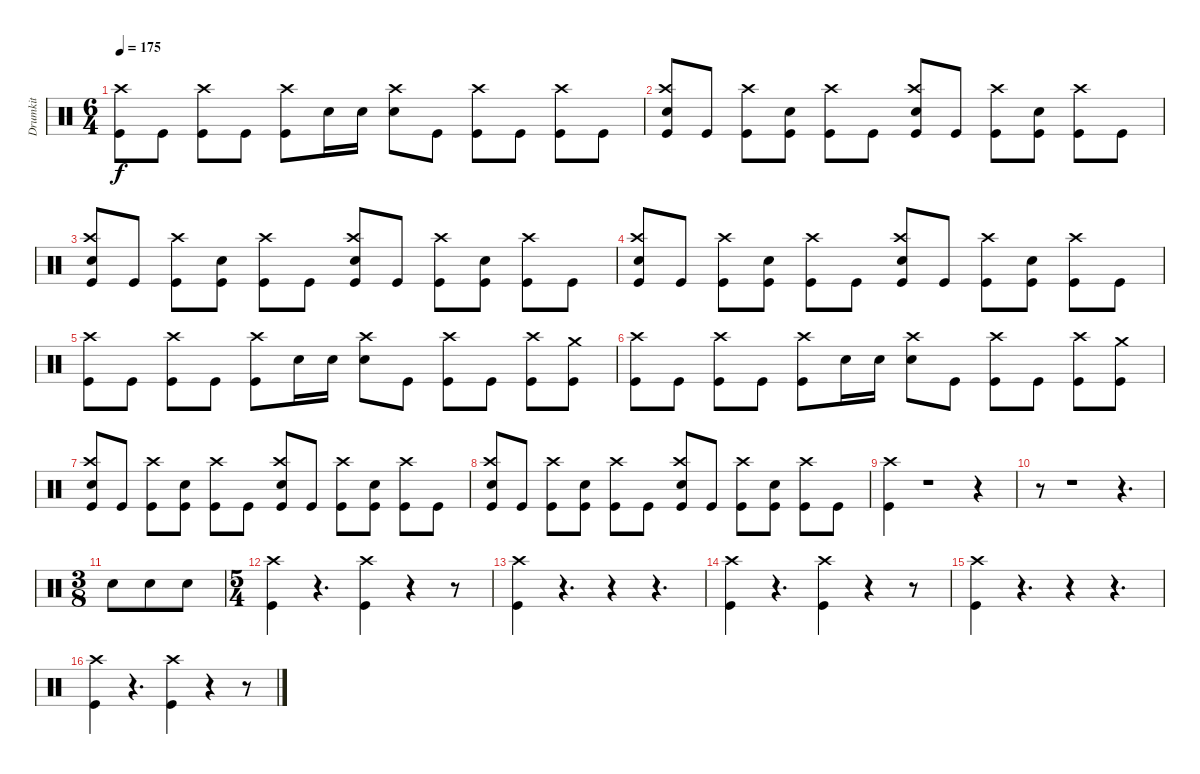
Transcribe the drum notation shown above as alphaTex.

\track ("Drumkit" "Drumkit") {instrument percussion}
\staff {score}
\articulation defaults
\ts (6 4)
\tempo 175
\clef neutral
\ks c
("Kick (hit)" "Crash high (hit)").8{dy f} "Kick (hit)".8 ("Kick (hit)" "Crash high (hit)").8 "Kick (hit)".8 ("Kick (hit)" "Crash high (hit)").8 "Snare (hit) 2".16 "Snare (hit) 2".16 ("Snare (hit) 2" "Crash high (hit)").8 "Kick (hit)".8 ("Kick (hit)" "Crash high (hit)").8 "Kick (hit)".8 ("Kick (hit)" "Crash high (hit)").8 "Kick (hit)".8 |
("Kick (hit)" "Crash high (hit)" "Snare (hit) 2").8 "Kick (hit)".8 ("Kick (hit)" "Crash high (hit)").8 ("Kick (hit)" "Snare (hit) 2").8 ("Kick (hit)" "Crash high (hit)").8 "Kick (hit)".8 ("Kick (hit)" "Crash high (hit)" "Snare (hit) 2").8 "Kick (hit)".8 ("Kick (hit)" "Crash high (hit)").8 ("Kick (hit)" "Snare (hit) 2").8 ("Kick (hit)" "Crash high (hit)").8 "Kick (hit)".8 |
("Kick (hit)" "Crash high (hit)" "Snare (hit) 2").8 "Kick (hit)".8 ("Kick (hit)" "Crash high (hit)").8 ("Kick (hit)" "Snare (hit) 2").8 ("Kick (hit)" "Crash high (hit)").8 "Kick (hit)".8 ("Kick (hit)" "Crash high (hit)" "Snare (hit) 2").8 "Kick (hit)".8 ("Kick (hit)" "Crash high (hit)").8 ("Kick (hit)" "Snare (hit) 2").8 ("Kick (hit)" "Crash high (hit)").8 "Kick (hit)".8 |
("Kick (hit)" "Crash high (hit)" "Snare (hit) 2").8 "Kick (hit)".8 ("Kick (hit)" "Crash high (hit)").8 ("Kick (hit)" "Snare (hit) 2").8 ("Kick (hit)" "Crash high (hit)").8 "Kick (hit)".8 ("Kick (hit)" "Crash high (hit)" "Snare (hit) 2").8 "Kick (hit)".8 ("Kick (hit)" "Crash high (hit)").8 ("Kick (hit)" "Snare (hit) 2").8 ("Kick (hit)" "Crash high (hit)").8 "Kick (hit)".8 |
("Kick (hit)" "Crash high (hit)").8 "Kick (hit)".8 ("Kick (hit)" "Crash high (hit)").8 "Kick (hit)".8 ("Kick (hit)" "Crash high (hit)").8 "Snare (hit) 2".16 "Snare (hit) 2".16 ("Snare (hit) 2" "Crash high (hit)").8 "Kick (hit)".8 ("Kick (hit)" "Crash high (hit)").8 "Kick (hit)".8 ("Kick (hit)" "Crash high (hit)").8 ("Kick (hit)" "Crash medium (hit)").8 |
("Kick (hit)" "Crash high (hit)").8 "Kick (hit)".8 ("Kick (hit)" "Crash high (hit)").8 "Kick (hit)".8 ("Kick (hit)" "Crash high (hit)").8 "Snare (hit) 2".16 "Snare (hit) 2".16 ("Snare (hit) 2" "Crash high (hit)").8 "Kick (hit)".8 ("Kick (hit)" "Crash high (hit)").8 "Kick (hit)".8 ("Kick (hit)" "Crash high (hit)").8 ("Kick (hit)" "Crash medium (hit)").8 |
("Kick (hit)" "Crash high (hit)" "Snare (hit) 2").8 "Kick (hit)".8 ("Kick (hit)" "Crash high (hit)").8 ("Kick (hit)" "Snare (hit) 2").8 ("Kick (hit)" "Crash high (hit)").8 "Kick (hit)".8 ("Kick (hit)" "Crash high (hit)" "Snare (hit) 2").8 "Kick (hit)".8 ("Kick (hit)" "Crash high (hit)").8 ("Kick (hit)" "Snare (hit) 2").8 ("Kick (hit)" "Crash high (hit)").8 "Kick (hit)".8 |
("Kick (hit)" "Crash high (hit)" "Snare (hit) 2").8 "Kick (hit)".8 ("Kick (hit)" "Crash high (hit)").8 ("Kick (hit)" "Snare (hit) 2").8 ("Kick (hit)" "Crash high (hit)").8 "Kick (hit)".8 ("Kick (hit)" "Crash high (hit)" "Snare (hit) 2").8 "Kick (hit)".8 ("Kick (hit)" "Crash high (hit)").8 ("Kick (hit)" "Snare (hit) 2").8 ("Kick (hit)" "Crash high (hit)").8 "Kick (hit)".8 |
("Kick (hit)" "Crash high (hit)").4 r.1 r.4 |
r.8 r.1 r.4{d} |
\ts (3 8)
"Snare (hit) 2".8 "Snare (hit) 2".8 "Snare (hit) 2".8 |
\ts (5 4)
("Kick (hit)" "Crash high (hit)").4 r.4{d} ("Kick (hit)" "Crash high (hit)").4 r.4 r.8 |
("Kick (hit)" "Crash high (hit)").4 r.4{d} r.4 r.4{d} |
("Kick (hit)" "Crash high (hit)").4 r.4{d} ("Kick (hit)" "Crash high (hit)").4 r.4 r.8 |
("Kick (hit)" "Crash high (hit)").4 r.4{d} r.4 r.4{d} |
("Kick (hit)" "Crash high (hit)").4 r.4{d} ("Kick (hit)" "Crash high (hit)").4 r.4 r.8
